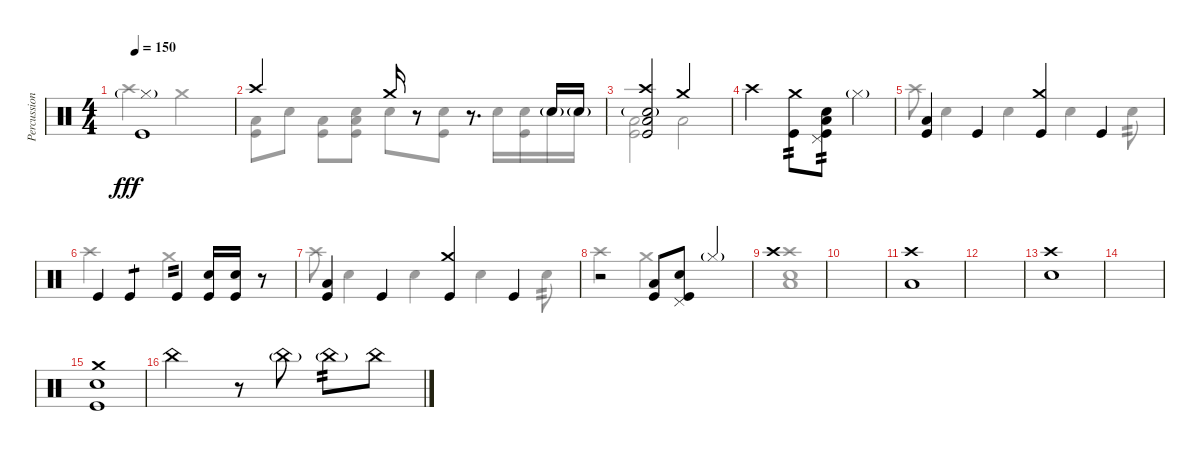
\track ("Percussion" "Percussion") {instrument percussion}
\staff {score}
\articulation defaults
\voice
\ts (4 4)
\tempo 150
\clef neutral
\ks c
("Hi-Hat (closed)"{g} "Kick (hit)").1{dy fff} |
"Crash high (hit)".2 "Crash medium (hit)".16 r.8 r.8{d} "Snare (hit) 2"{g}.16 "Snare (hit) 2"{g}.16 |
("Snare (hit) 2"{g} "Crash high (hit)" "Kick (hit)" "Low Floor Tom (hit)").2 "Crash medium (hit)".2 |
"Crash high (hit)".2 ("Crash medium (hit)" "Kick (hit)").8{tp 2} ("Low Floor Tom (hit)" "Pedal Hi-Hat (hit)" "Snare (hit) 2" "Kick (hit)").8{tp 2} "Hi-Hat (closed)"{g}.4 |
("Kick (hit)" "Low Floor Tom (hit)").4 "Kick (hit)".4 ("Crash medium (hit)" "Kick (hit)").4 "Kick (hit)".4 |
"Kick (hit)".4 "Kick (hit)".4{tp 1} "Kick (hit)".4{tp 2} ("Snare (hit) 2" "Kick (hit)").16 ("Snare (hit) 2" "Kick (hit)").16 r.8 |
("Kick (hit)" "Low Floor Tom (hit)").4 "Kick (hit)".4 ("Crash medium (hit)" "Kick (hit)").4 "Kick (hit)".4 |
r.2 ("Low Floor Tom (hit)" "Kick (hit)").8 ("Pedal Hi-Hat (hit)" "Snare (hit) 2" "Kick (hit)").8 "Hi-Hat (closed)"{g}.4 |
"Crash high (hit)".1 |
|
("Crash high (hit)" "Low Floor Tom (hit)").1 |
|
("Crash high (hit)" "Snare (hit) 2").1 |
|
("Crash medium (hit)" "Kick (hit)" "Snare (hit) 2").1 |
"China (hit)".2 r.8 "China (hit)"{g}.8 "China (hit)"{g}.8{tp 2} "China (hit)".8
\voice
\clef neutral
\ottava regular
\simile none
\ks c "Crash high (hit)".2{dy fff} "Crash medium (hit)".2
|
("Low Tom (hit)" "Kick (hit)").8 "Snare (hit) 2".8 ("Low Floor Tom (hit)" "Kick (hit)").8 ("Low Floor Tom (hit)" "Snare (hit) 2" "Kick (hit)").8 "Snare (hit) 2".8 ("Snare (hit) 2" "Kick (hit)").8 "Snare (hit) 2".16 ("Snare (hit) 2" "Kick (hit)").16 "Snare (hit) 2"{g}.16 "Snare (hit) 2"{g}.16 |
("Low Tom (hit)" "Kick (hit)").2 "Low Floor Tom (hit)".2 |
|
"Crash high (hit)".8 "Snare (hit) 2".4 "Snare (hit) 2".4 "Snare (hit) 2".4 "Snare (hit) 2".8{tp 2} |
"Crash high (hit)".2 "Crash medium (hit)".2 |
"Crash high (hit)".8 "Snare (hit) 2".4 "Snare (hit) 2".4 "Snare (hit) 2".4 "Snare (hit) 2".8{tp 2} |
"Crash high (hit)".2 "Crash medium (hit)".2 |
("Crash high (hit)" "Snare (hit) 2" "Low Floor Tom (hit)").1 |
|
|
|
|
|
|
